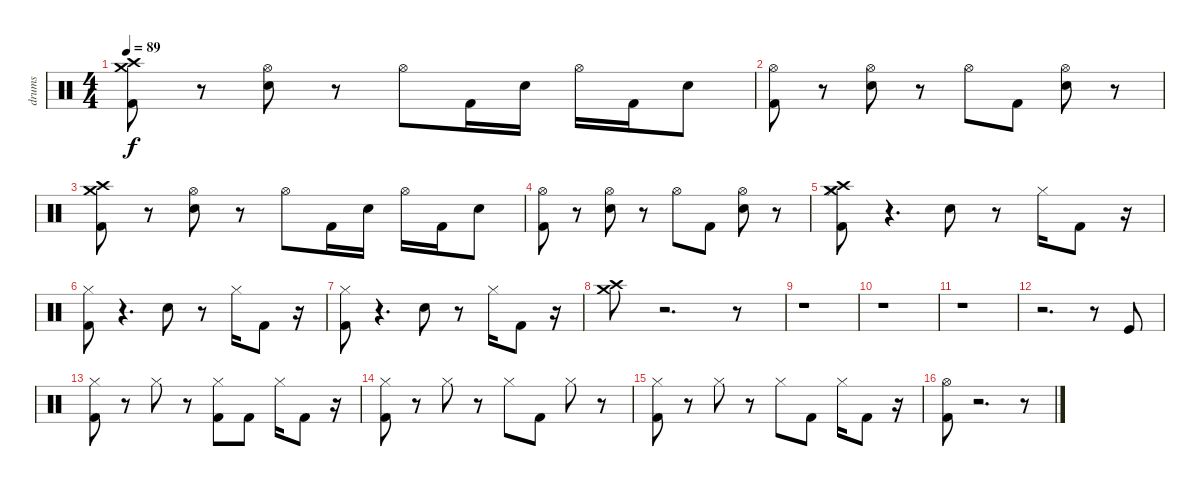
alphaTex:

\track ("drums" "drums") {instrument percussion}
\staff {score}
\articulation defaults
\ts (4 4)
\tempo 89
\clef neutral
\ks c
("Kick (hit) 2" "Crash medium (hit)" "Crash high (hit)").8{dy f} r.8 ("Hand Clap (hit)" "Hi-Hat (open)").8 r.8 "Hi-Hat (open)".8 "Kick (hit) 2".16 "Hand Clap (hit)".16 "Hi-Hat (open)".16 "Kick (hit) 2".16 "Hand Clap (hit)".8 |
("Kick (hit) 2" "Hi-Hat (open)").8 r.8 ("Hand Clap (hit)" "Hi-Hat (open)").8 r.8 "Hi-Hat (open)".8 "Kick (hit) 2".8 ("Hand Clap (hit)" "Hi-Hat (open)").8 r.8 |
("Crash medium (hit)" "Crash high (hit)" "Kick (hit) 2").8 r.8 ("Hand Clap (hit)" "Hi-Hat (open)").8 r.8 "Hi-Hat (open)".8 "Kick (hit) 2".16 "Hand Clap (hit)".16 "Hi-Hat (open)".16 "Kick (hit) 2".16 "Hand Clap (hit)".8 |
("Kick (hit) 2" "Hi-Hat (open)").8 r.8 ("Hand Clap (hit)" "Hi-Hat (open)").8 r.8 "Hi-Hat (open)".8 "Kick (hit) 2".8 ("Hand Clap (hit)" "Hi-Hat (open)").8 r.8 |
("Crash medium (hit)" "Crash high (hit)" "Hi-Hat (closed)" "Kick (hit) 2").8 r.4{d} "Hand Clap (hit)".8 r.8 "Hi-Hat (closed)".16 "Kick (hit) 2".8 r.16 |
("Hi-Hat (closed)" "Kick (hit) 2").8 r.4{d} "Hand Clap (hit)".8 r.8 "Hi-Hat (closed)".16 "Kick (hit) 2".8 r.16 |
("Hi-Hat (closed)" "Kick (hit) 2").8 r.4{d} "Hand Clap (hit)".8 r.8 "Hi-Hat (closed)".16 "Kick (hit) 2".8 r.16 |
("Crash medium (hit)" "Crash high (hit)").8 r.2{d} r.8 |
r.1 |
r.1 |
r.1 |
r.2{d} r.8 "Kick (hit)".8 |
("Kick (hit) 2" "Hi-Hat (closed)").8 r.8 "Hi-Hat (closed)".8 r.8 ("Hi-Hat (closed)" "Kick (hit) 2").8 "Kick (hit) 2".8 "Hi-Hat (closed)".16 "Kick (hit) 2".8 r.16 |
("Kick (hit) 2" "Hi-Hat (closed)").8 r.8 "Hi-Hat (closed)".8 r.8 "Hi-Hat (closed)".8 "Kick (hit) 2".8 "Hi-Hat (closed)".8 r.8 |
("Kick (hit) 2" "Hi-Hat (closed)").8 r.8 "Hi-Hat (closed)".8 r.8 "Hi-Hat (closed)".8 "Kick (hit) 2".8 "Hi-Hat (closed)".16 "Kick (hit) 2".8 r.16 |
("Kick (hit) 2" "Hi-Hat (open)").8 r.2{d} r.8
